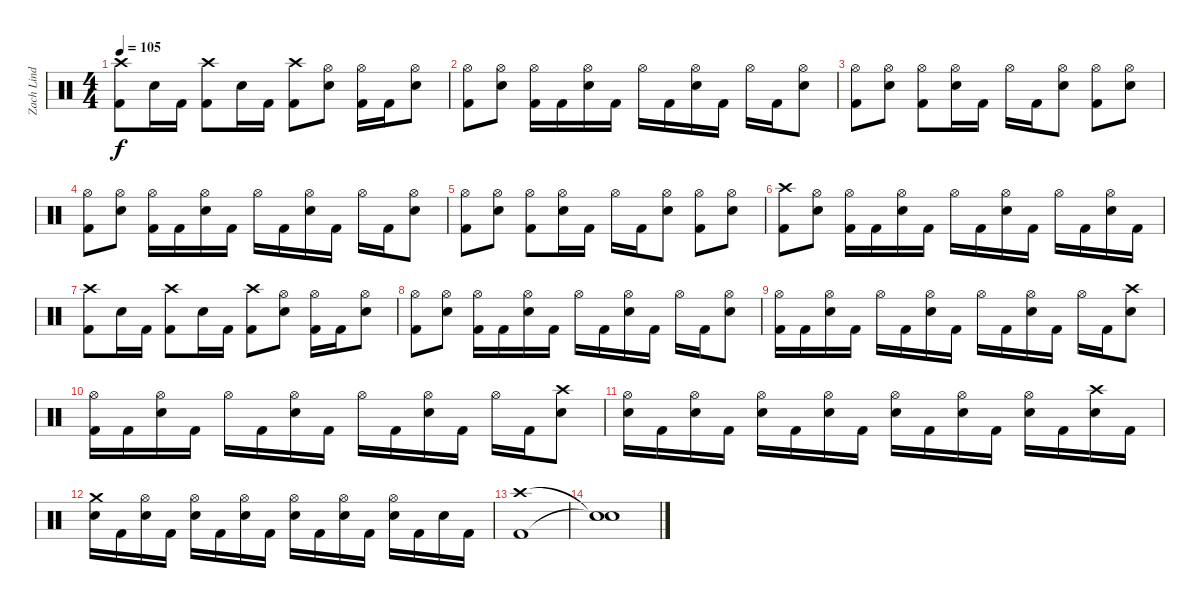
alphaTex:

\track ("Zach Lind" "Zach Lind") {instrument percussion}
\staff {score}
\articulation defaults
\ts (4 4)
\tempo 105
\clef neutral
\ks c
("Crash high (hit)" "Kick (hit) 2").8{dy f} "Snare (hit) 2".16 "Kick (hit) 2".16 ("Crash high (hit)" "Kick (hit) 2").8 "Snare (hit) 2".16 "Kick (hit) 2".16 ("Crash high (hit)" "Kick (hit) 2").8 ("Hi-Hat (open)" "Snare (hit) 2").8 ("Hi-Hat (open)" "Kick (hit) 2").16 "Kick (hit) 2".16 ("Hi-Hat (open)" "Snare (hit) 2").8 |
("Hi-Hat (open)" "Kick (hit) 2").8 ("Hi-Hat (open)" "Snare (hit) 2").8 ("Hi-Hat (open)" "Kick (hit) 2").16 "Kick (hit) 2".16 ("Hi-Hat (open)" "Snare (hit) 2").16 "Kick (hit) 2".16 "Hi-Hat (open)".16 "Kick (hit) 2".16 ("Hi-Hat (open)" "Snare (hit) 2").16 "Kick (hit) 2".16 "Hi-Hat (open)".16 "Kick (hit) 2".16 ("Hi-Hat (open)" "Snare (hit) 2").8 |
("Hi-Hat (open)" "Kick (hit) 2").8 ("Hi-Hat (open)" "Snare (hit) 2").8 ("Hi-Hat (open)" "Kick (hit) 2").8 ("Hi-Hat (open)" "Snare (hit) 2").16 "Kick (hit) 2".16 "Hi-Hat (open)".16 "Kick (hit) 2".16 ("Hi-Hat (open)" "Snare (hit) 2").8 ("Hi-Hat (open)" "Kick (hit) 2").8 ("Hi-Hat (open)" "Snare (hit) 2").8 |
("Hi-Hat (open)" "Kick (hit) 2").8 ("Hi-Hat (open)" "Snare (hit) 2").8 ("Hi-Hat (open)" "Kick (hit) 2").16 "Kick (hit) 2".16 ("Hi-Hat (open)" "Snare (hit) 2").16 "Kick (hit) 2".16 "Hi-Hat (open)".16 "Kick (hit) 2".16 ("Hi-Hat (open)" "Snare (hit) 2").16 "Kick (hit) 2".16 "Hi-Hat (open)".16 "Kick (hit) 2".16 ("Hi-Hat (open)" "Snare (hit) 2").8 |
("Hi-Hat (open)" "Kick (hit) 2").8 ("Hi-Hat (open)" "Snare (hit) 2").8 ("Hi-Hat (open)" "Kick (hit) 2").8 ("Hi-Hat (open)" "Snare (hit) 2").16 "Kick (hit) 2".16 "Hi-Hat (open)".16 "Kick (hit) 2".16 ("Hi-Hat (open)" "Snare (hit) 2").8 ("Hi-Hat (open)" "Kick (hit) 2").8 ("Hi-Hat (open)" "Snare (hit) 2").8 |
("Crash high (hit)" "Kick (hit) 2").8 ("Hi-Hat (open)" "Snare (hit) 2").8 ("Hi-Hat (open)" "Kick (hit) 2").16 "Kick (hit) 2".16 ("Hi-Hat (open)" "Snare (hit) 2").16 "Kick (hit) 2".16 "Hi-Hat (open)".16 "Kick (hit) 2".16 ("Hi-Hat (open)" "Snare (hit) 2").16 "Kick (hit) 2".16 "Hi-Hat (open)".16 "Kick (hit) 2".16 ("Hi-Hat (open)" "Snare (hit) 2").16 "Kick (hit) 2".16 |
("Crash high (hit)" "Kick (hit) 2").8 "Snare (hit) 2".16 "Kick (hit) 2".16 ("Crash high (hit)" "Kick (hit) 2").8 "Snare (hit) 2".16 "Kick (hit) 2".16 ("Crash high (hit)" "Kick (hit) 2").8 ("Hi-Hat (open)" "Snare (hit) 2").8 ("Hi-Hat (open)" "Kick (hit) 2").16 "Kick (hit) 2".16 ("Hi-Hat (open)" "Snare (hit) 2").8 |
("Hi-Hat (open)" "Kick (hit) 2").8 ("Hi-Hat (open)" "Snare (hit) 2").8 ("Hi-Hat (open)" "Kick (hit) 2").16 "Kick (hit) 2".16 ("Hi-Hat (open)" "Snare (hit) 2").16 "Kick (hit) 2".16 "Hi-Hat (open)".16 "Kick (hit) 2".16 ("Hi-Hat (open)" "Snare (hit) 2").16 "Kick (hit) 2".16 "Hi-Hat (open)".16 "Kick (hit) 2".16 ("Hi-Hat (open)" "Snare (hit) 2").8 |
("Hi-Hat (open)" "Kick (hit) 2").16 "Kick (hit) 2".16 ("Hi-Hat (open)" "Snare (hit) 2").16 "Kick (hit) 2".16 "Hi-Hat (open)".16 "Kick (hit) 2".16 ("Hi-Hat (open)" "Snare (hit) 2").16 "Kick (hit) 2".16 "Hi-Hat (open)".16 "Kick (hit) 2".16 ("Hi-Hat (open)" "Snare (hit) 2").16 "Kick (hit) 2".16 "Hi-Hat (open)".16 "Kick (hit) 2".16 ("Crash high (hit)" "Snare (hit) 2").8 |
("Hi-Hat (open)" "Kick (hit) 2").16 "Kick (hit) 2".16 ("Hi-Hat (open)" "Snare (hit) 2").16 "Kick (hit) 2".16 "Hi-Hat (open)".16 "Kick (hit) 2".16 ("Hi-Hat (open)" "Snare (hit) 2").16 "Kick (hit) 2".16 "Hi-Hat (open)".16 "Kick (hit) 2".16 ("Hi-Hat (open)" "Snare (hit) 2").16 "Kick (hit) 2".16 "Hi-Hat (open)".16 "Kick (hit) 2".16 ("Crash high (hit)" "Snare (hit) 2").8 |
("Hi-Hat (open)" "Snare (hit) 2").16 "Kick (hit) 2".16 ("Hi-Hat (open)" "Snare (hit) 2").16 "Kick (hit) 2".16 ("Hi-Hat (open)" "Snare (hit) 2").16 "Kick (hit) 2".16 ("Hi-Hat (open)" "Snare (hit) 2").16 "Kick (hit) 2".16 ("Hi-Hat (open)" "Snare (hit) 2").16 "Kick (hit) 2".16 ("Hi-Hat (open)" "Snare (hit) 2").16 "Kick (hit) 2".16 ("Hi-Hat (open)" "Snare (hit) 2").16 "Kick (hit) 2".16 ("Crash high (hit)" "Snare (hit) 2").16 "Kick (hit) 2".16 |
("Crash medium (hit)" "Snare (hit) 2").16 "Kick (hit) 2".16 ("Hi-Hat (open)" "Snare (hit) 2").16 "Kick (hit) 2".16 ("Hi-Hat (open)" "Snare (hit) 2").16 "Kick (hit) 2".16 ("Hi-Hat (open)" "Snare (hit) 2").16 "Kick (hit) 2".16 ("Hi-Hat (open)" "Snare (hit) 2").16 "Kick (hit) 2".16 ("Hi-Hat (open)" "Snare (hit) 2").16 "Kick (hit) 2".16 ("Hi-Hat (open)" "Snare (hit) 2").16 "Kick (hit) 2".16 "Snare (hit) 2".16 "Kick (hit) 2".16 |
("Crash high (hit)" "Kick (hit) 2").1 |
("Snare (hit)"{t} "Snare (hit)"{t}).1
